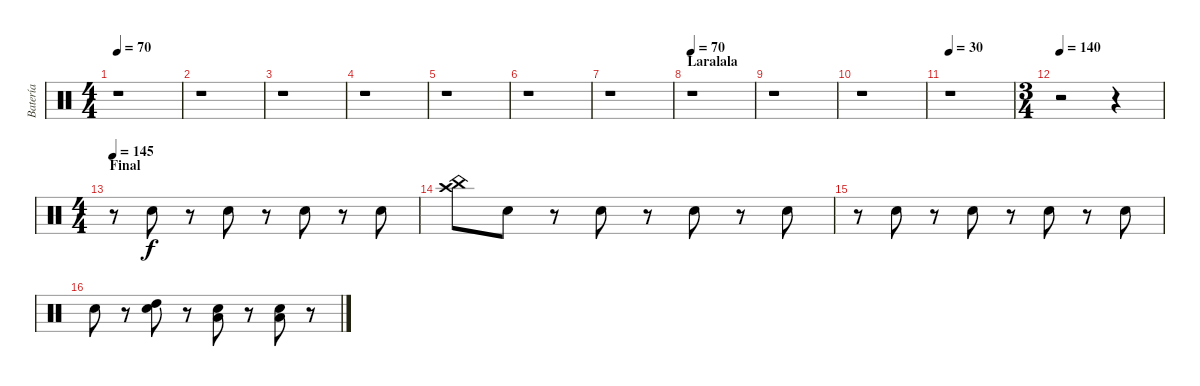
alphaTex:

\track ("Batería" "Batería") {instrument percussion}
\staff {score}
\articulation defaults
\ts (4 4)
\tempo 70
\clef neutral
\ks c
r.1{dy f} |
r.1 |
r.1 |
r.1 |
r.1 |
r.1 |
r.1 |
\section ("" "Laralala")
\tempo 70
r.1 |
r.1 |
r.1 |
\tempo 30
r.1 |
\ts (3 4)
\tempo 140
r.2 r.4 |
\ts (4 4)
\section ("" "Final")
\tempo 145
r.8 "Snare (hit) 2".8 r.8 "Snare (hit) 2".8 r.8 "Snare (hit) 2".8 r.8 "Snare (hit) 2".8 |
("Crash high (hit)" "China (hit)").8 "Snare (hit) 2".8 r.8 "Snare (hit) 2".8 r.8 "Snare (hit) 2".8 r.8 "Snare (hit) 2".8 |
r.8 "Snare (hit) 2".8 r.8 "Snare (hit) 2".8 r.8 "Snare (hit) 2".8 r.8 "Snare (hit) 2".8 |
"Snare (hit) 2".8 r.8 ("Snare (hit) 2" "High Tom (hit)").8 r.8 ("Snare (hit) 2" "Low Tom (hit)").8 r.8 ("Snare (hit) 2" "Low Floor Tom (hit)").8 r.8
